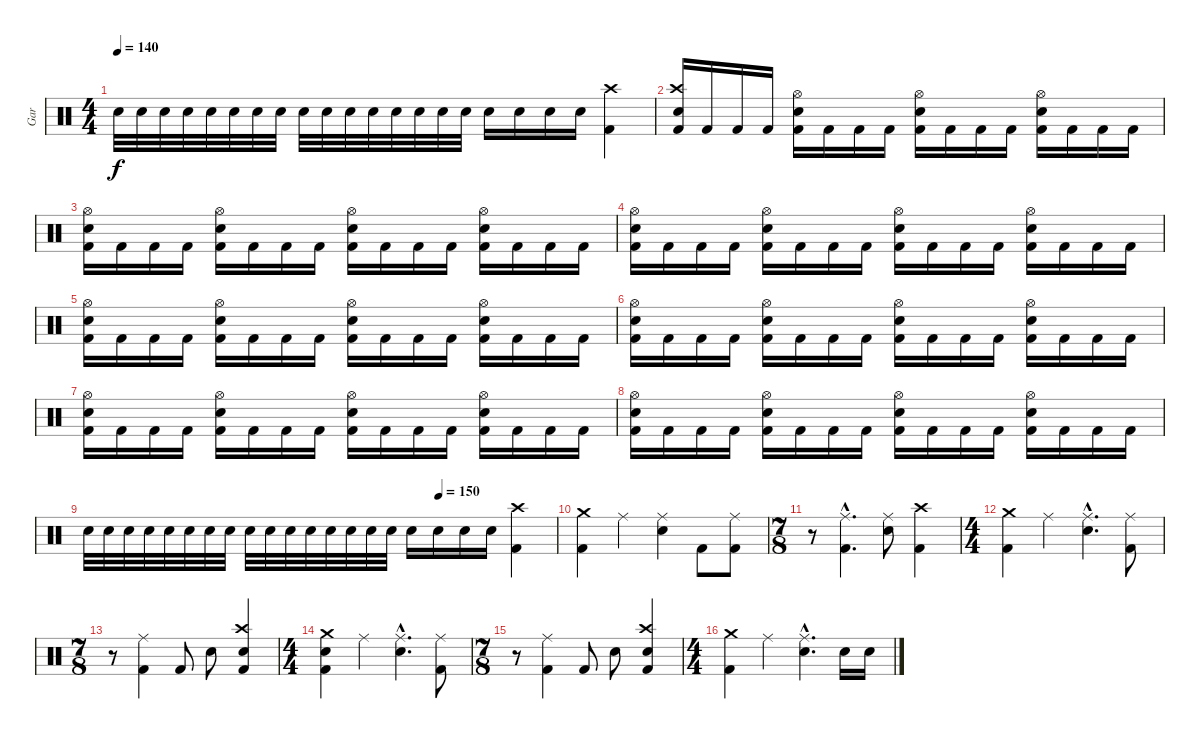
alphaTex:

\track ("Gar" "Gar") {instrument percussion}
\staff {score}
\articulation defaults
\ts (4 4)
\tempo 140
\clef neutral
\ks c "Snare (hit) 2".32{dy f} "Snare (hit) 2".32 "Snare (hit) 2".32 "Snare (hit) 2".32 "Snare (hit) 2".32 "Snare (hit) 2".32 "Snare (hit) 2".32 "Snare (hit) 2".32 "Snare (hit) 2".32 "Snare (hit) 2".32 "Snare (hit) 2".32 "Snare (hit) 2".32 "Snare (hit) 2".32 "Snare (hit) 2".32 "Snare (hit) 2".32 "Snare (hit) 2".32 "Snare (hit) 2".16 "Snare (hit) 2".16 "Snare (hit) 2".16 "Snare (hit) 2".16
("Crash high (hit)" "Kick (hit) 2").4 |
("Crash high (hit)" "Snare (hit) 2" "Kick (hit) 2").16 "Kick (hit) 2".16 "Kick (hit) 2".16 "Kick (hit) 2".16 ("Hi-Hat (open)" "Snare (hit) 2" "Kick (hit) 2").16 "Kick (hit) 2".16 "Kick (hit) 2".16 "Kick (hit) 2".16 ("Hi-Hat (open)" "Snare (hit) 2" "Kick (hit) 2").16 "Kick (hit) 2".16 "Kick (hit) 2".16 "Kick (hit) 2".16 ("Hi-Hat (open)" "Snare (hit) 2" "Kick (hit) 2").16 "Kick (hit) 2".16 "Kick (hit) 2".16 "Kick (hit) 2".16 |
("Hi-Hat (open)" "Snare (hit) 2" "Kick (hit) 2").16 "Kick (hit) 2".16 "Kick (hit) 2".16 "Kick (hit) 2".16 ("Hi-Hat (open)" "Snare (hit) 2" "Kick (hit) 2").16 "Kick (hit) 2".16 "Kick (hit) 2".16 "Kick (hit) 2".16 ("Hi-Hat (open)" "Snare (hit) 2" "Kick (hit) 2").16 "Kick (hit) 2".16 "Kick (hit) 2".16 "Kick (hit) 2".16 ("Hi-Hat (open)" "Snare (hit) 2" "Kick (hit) 2").16 "Kick (hit) 2".16 "Kick (hit) 2".16 "Kick (hit) 2".16 |
("Hi-Hat (open)" "Snare (hit) 2" "Kick (hit) 2").16 "Kick (hit) 2".16 "Kick (hit) 2".16 "Kick (hit) 2".16 ("Hi-Hat (open)" "Snare (hit) 2" "Kick (hit) 2").16 "Kick (hit) 2".16 "Kick (hit) 2".16 "Kick (hit) 2".16 ("Hi-Hat (open)" "Snare (hit) 2" "Kick (hit) 2").16 "Kick (hit) 2".16 "Kick (hit) 2".16 "Kick (hit) 2".16 ("Hi-Hat (open)" "Snare (hit) 2" "Kick (hit) 2").16 "Kick (hit) 2".16 "Kick (hit) 2".16 "Kick (hit) 2".16 |
("Hi-Hat (open)" "Snare (hit) 2" "Kick (hit) 2").16 "Kick (hit) 2".16 "Kick (hit) 2".16 "Kick (hit) 2".16 ("Hi-Hat (open)" "Snare (hit) 2" "Kick (hit) 2").16 "Kick (hit) 2".16 "Kick (hit) 2".16 "Kick (hit) 2".16 ("Hi-Hat (open)" "Snare (hit) 2" "Kick (hit) 2").16 "Kick (hit) 2".16 "Kick (hit) 2".16 "Kick (hit) 2".16 ("Hi-Hat (open)" "Snare (hit) 2" "Kick (hit) 2").16 "Kick (hit) 2".16 "Kick (hit) 2".16 "Kick (hit) 2".16 |
("Hi-Hat (open)" "Snare (hit) 2" "Kick (hit) 2").16 "Kick (hit) 2".16 "Kick (hit) 2".16 "Kick (hit) 2".16 ("Hi-Hat (open)" "Snare (hit) 2" "Kick (hit) 2").16 "Kick (hit) 2".16 "Kick (hit) 2".16 "Kick (hit) 2".16 ("Hi-Hat (open)" "Snare (hit) 2" "Kick (hit) 2").16 "Kick (hit) 2".16 "Kick (hit) 2".16 "Kick (hit) 2".16 ("Hi-Hat (open)" "Snare (hit) 2" "Kick (hit) 2").16 "Kick (hit) 2".16 "Kick (hit) 2".16 "Kick (hit) 2".16 |
("Hi-Hat (open)" "Snare (hit) 2" "Kick (hit) 2").16 "Kick (hit) 2".16 "Kick (hit) 2".16 "Kick (hit) 2".16 ("Hi-Hat (open)" "Snare (hit) 2" "Kick (hit) 2").16 "Kick (hit) 2".16 "Kick (hit) 2".16 "Kick (hit) 2".16 ("Hi-Hat (open)" "Snare (hit) 2" "Kick (hit) 2").16 "Kick (hit) 2".16 "Kick (hit) 2".16 "Kick (hit) 2".16 ("Hi-Hat (open)" "Snare (hit) 2" "Kick (hit) 2").16 "Kick (hit) 2".16 "Kick (hit) 2".16 "Kick (hit) 2".16 |
("Hi-Hat (open)" "Snare (hit) 2" "Kick (hit) 2").16 "Kick (hit) 2".16 "Kick (hit) 2".16 "Kick (hit) 2".16 ("Hi-Hat (open)" "Snare (hit) 2" "Kick (hit) 2").16 "Kick (hit) 2".16 "Kick (hit) 2".16 "Kick (hit) 2".16 ("Hi-Hat (open)" "Snare (hit) 2" "Kick (hit) 2").16 "Kick (hit) 2".16 "Kick (hit) 2".16 "Kick (hit) 2".16 ("Hi-Hat (open)" "Snare (hit) 2" "Kick (hit) 2").16 "Kick (hit) 2".16 "Kick (hit) 2".16 "Kick (hit) 2".16 |
\tempo (150 0.75)
"Snare (hit) 2".32 "Snare (hit) 2".32 "Snare (hit) 2".32 "Snare (hit) 2".32 "Snare (hit) 2".32 "Snare (hit) 2".32 "Snare (hit) 2".32 "Snare (hit) 2".32 "Snare (hit) 2".32 "Snare (hit) 2".32 "Snare (hit) 2".32 "Snare (hit) 2".32 "Snare (hit) 2".32 "Snare (hit) 2".32 "Snare (hit) 2".32 "Snare (hit) 2".32 "Snare (hit) 2".16 "Snare (hit) 2".16 "Snare (hit) 2".16 "Snare (hit) 2".16 ("Crash high (hit)" "Kick (hit) 2").4 |
("Crash medium (hit)" "Kick (hit) 2").4 "Ride (middle)".4 ("Ride (middle)" "Snare (hit) 2").4 "Kick (hit) 2".8 ("Ride (middle)" "Kick (hit) 2").8 |
\ts (7 8)
r.8 ("Ride (middle)"{hac} "Kick (hit) 2"{hac}).4{d} ("Ride (middle)" "Snare (hit) 2").8 ("Crash high (hit)" "Kick (hit) 2").4 |
\ts (4 4)
("Crash medium (hit)" "Kick (hit) 2").4 "Ride (middle)".4 ("Ride (middle)"{hac} "Snare (hit) 2"{hac}).4{d} ("Ride (middle)" "Kick (hit) 2").8 |
\ts (7 8)
r.8 ("Ride (middle)" "Kick (hit) 2").4 "Kick (hit) 2".8 "Snare (hit) 2".8 ("Kick (hit) 2" "Crash high (hit)" "Snare (hit) 2").4 |
\ts (4 4)
("Snare (hit) 2" "Crash medium (hit)" "Kick (hit) 2").4 "Ride (middle)".4 ("Ride (middle)"{hac} "Snare (hit) 2"{hac}).4{d} ("Ride (middle)" "Kick (hit) 2").8 |
\ts (7 8)
r.8 ("Ride (middle)" "Kick (hit) 2").4 "Kick (hit) 2".8 "Snare (hit) 2".8 ("Snare (hit) 2" "Crash high (hit)" "Kick (hit) 2").4 |
\ts (4 4)
("Crash medium (hit)" "Kick (hit) 2").4 "Ride (middle)".4 ("Ride (middle)"{hac} "Snare (hit) 2"{hac}).4{d} "Snare (hit) 2".16 "Snare (hit) 2".16
